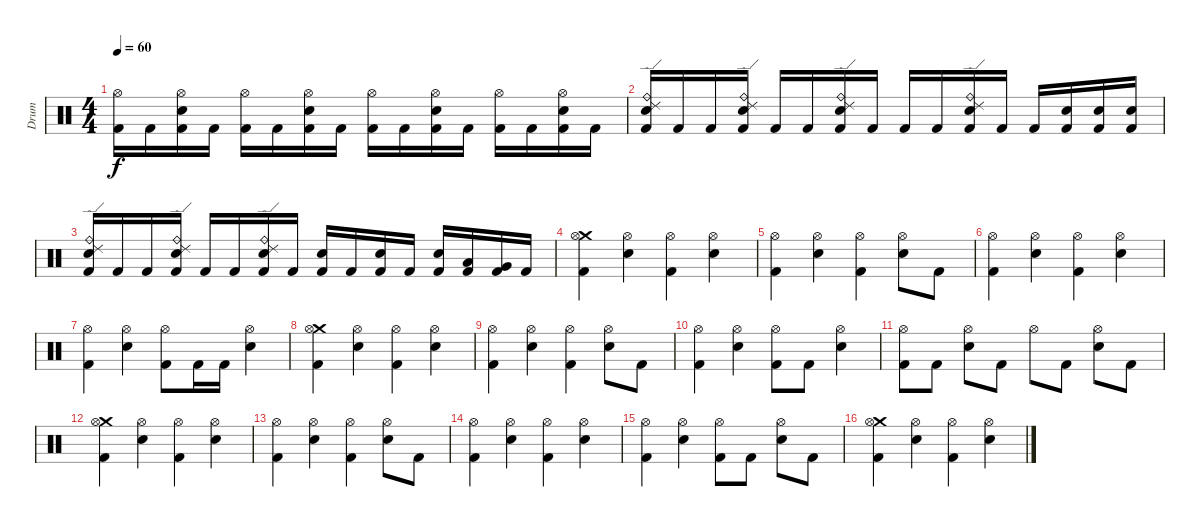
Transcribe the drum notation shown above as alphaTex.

\track ("Drum" "Drum") {instrument percussion}
\staff {score}
\articulation defaults
\ts (4 4)
\tempo 60
\clef neutral
\ks c
("Hi-Hat (open)" "Kick (hit) 2").16{dy f} "Kick (hit) 2".16 ("Electric Snare (hit)" "Hi-Hat (open)" "Kick (hit) 2").16 "Kick (hit) 2".16 ("Hi-Hat (open)" "Kick (hit) 2").16 "Kick (hit) 2".16 ("Electric Snare (hit)" "Hi-Hat (open)" "Kick (hit) 2").16 "Kick (hit) 2".16 ("Hi-Hat (open)" "Kick (hit) 2").16 "Kick (hit) 2".16 ("Electric Snare (hit)" "Hi-Hat (open)" "Kick (hit) 2").16 "Kick (hit) 2".16 ("Hi-Hat (open)" "Kick (hit) 2").16 "Kick (hit) 2".16 ("Electric Snare (hit)" "Hi-Hat (open)" "Kick (hit) 2").16 "Kick (hit) 2".16 |
("Electric Snare (hit)" "Ride (bell)" "Ride (edge) 2" "Kick (hit) 2").16 "Kick (hit) 2".16 "Kick (hit) 2".16 ("Electric Snare (hit)" "Ride (bell)" "Ride (edge) 2" "Kick (hit) 2").16 "Kick (hit) 2".16 "Kick (hit) 2".16 ("Electric Snare (hit)" "Ride (bell)" "Ride (edge) 2" "Kick (hit) 2").16 "Kick (hit) 2".16 "Kick (hit) 2".16 "Kick (hit) 2".16 ("Electric Snare (hit)" "Ride (bell)" "Ride (edge) 2" "Kick (hit) 2").16 "Kick (hit) 2".16 "Kick (hit) 2".16 ("Electric Snare (hit)" "Kick (hit) 2").16 ("Electric Snare (hit)" "Kick (hit) 2").16 ("Electric Snare (hit)" "Kick (hit) 2").16 |
("Ride (bell)" "Electric Snare (hit)" "Ride (edge) 2" "Kick (hit) 2").16 "Kick (hit) 2".16 "Kick (hit) 2".16 ("Ride (bell)" "Electric Snare (hit)" "Ride (edge) 2" "Kick (hit) 2").16 "Kick (hit) 2".16 "Kick (hit) 2".16 ("Ride (bell)" "Electric Snare (hit)" "Ride (edge) 2" "Kick (hit) 2").16 "Kick (hit) 2".16 ("Electric Snare (hit)" "Kick (hit) 2").16 "Kick (hit) 2".16 ("Electric Snare (hit)" "Kick (hit) 2").16 "Kick (hit) 2".16 ("Electric Snare (hit)" "Kick (hit) 2").16 ("Low Tom (hit)" "Kick (hit) 2").16 ("Very Low Tom (hit)" "Kick (hit) 2").16 "Kick (hit) 2".16 |
("Crash medium (hit)" "Kick (hit) 2" "Hi-Hat (open)").4 ("Electric Snare (hit)" "Hi-Hat (open)").4 ("Kick (hit) 2" "Hi-Hat (open)").4 ("Electric Snare (hit)" "Hi-Hat (open)").4 |
("Kick (hit) 2" "Hi-Hat (open)").4 ("Electric Snare (hit)" "Hi-Hat (open)").4 ("Kick (hit) 2" "Hi-Hat (open)").4 ("Electric Snare (hit)" "Hi-Hat (open)").8 "Kick (hit) 2".8 |
("Kick (hit) 2" "Hi-Hat (open)").4 ("Electric Snare (hit)" "Hi-Hat (open)").4 ("Kick (hit) 2" "Hi-Hat (open)").4 ("Electric Snare (hit)" "Hi-Hat (open)").4 |
("Kick (hit) 2" "Hi-Hat (open)").4 ("Electric Snare (hit)" "Hi-Hat (open)").4 ("Kick (hit) 2" "Hi-Hat (open)").8 "Kick (hit) 2".16 "Kick (hit) 2".16 ("Electric Snare (hit)" "Hi-Hat (open)").4 |
("Crash medium (hit)" "Kick (hit) 2" "Hi-Hat (open)").4 ("Electric Snare (hit)" "Hi-Hat (open)").4 ("Kick (hit) 2" "Hi-Hat (open)").4 ("Electric Snare (hit)" "Hi-Hat (open)").4 |
("Kick (hit) 2" "Hi-Hat (open)").4 ("Electric Snare (hit)" "Hi-Hat (open)").4 ("Kick (hit) 2" "Hi-Hat (open)").4 ("Electric Snare (hit)" "Hi-Hat (open)").8 "Kick (hit) 2".8 |
("Kick (hit) 2" "Hi-Hat (open)").4 ("Electric Snare (hit)" "Hi-Hat (open)").4 ("Kick (hit) 2" "Hi-Hat (open)").8 "Kick (hit) 2".8 ("Electric Snare (hit)" "Hi-Hat (open)").4 |
("Kick (hit) 2" "Hi-Hat (open)").8 "Kick (hit) 2".8 ("Electric Snare (hit)" "Hi-Hat (open)").8 "Kick (hit) 2".8 "Hi-Hat (open)".8 "Kick (hit) 2".8 ("Electric Snare (hit)" "Hi-Hat (open)").8 "Kick (hit) 2".8 |
("Crash medium (hit)" "Kick (hit) 2" "Hi-Hat (open)").4 ("Electric Snare (hit)" "Hi-Hat (open)").4 ("Kick (hit) 2" "Hi-Hat (open)").4 ("Electric Snare (hit)" "Hi-Hat (open)").4 |
("Kick (hit) 2" "Hi-Hat (open)").4 ("Electric Snare (hit)" "Hi-Hat (open)").4 ("Kick (hit) 2" "Hi-Hat (open)").4 ("Electric Snare (hit)" "Hi-Hat (open)").8 "Kick (hit) 2".8 |
("Kick (hit) 2" "Hi-Hat (open)").4 ("Electric Snare (hit)" "Hi-Hat (open)").4 ("Kick (hit) 2" "Hi-Hat (open)").4 ("Electric Snare (hit)" "Hi-Hat (open)").4 |
("Kick (hit) 2" "Hi-Hat (open)").4 ("Electric Snare (hit)" "Hi-Hat (open)").4 ("Kick (hit) 2" "Hi-Hat (open)").8 "Kick (hit) 2".8 ("Electric Snare (hit)" "Hi-Hat (open)").8 "Kick (hit) 2".8 |
("Crash medium (hit)" "Kick (hit) 2" "Hi-Hat (open)").4 ("Electric Snare (hit)" "Hi-Hat (open)").4 ("Kick (hit) 2" "Hi-Hat (open)").4 ("Electric Snare (hit)" "Hi-Hat (open)").4
